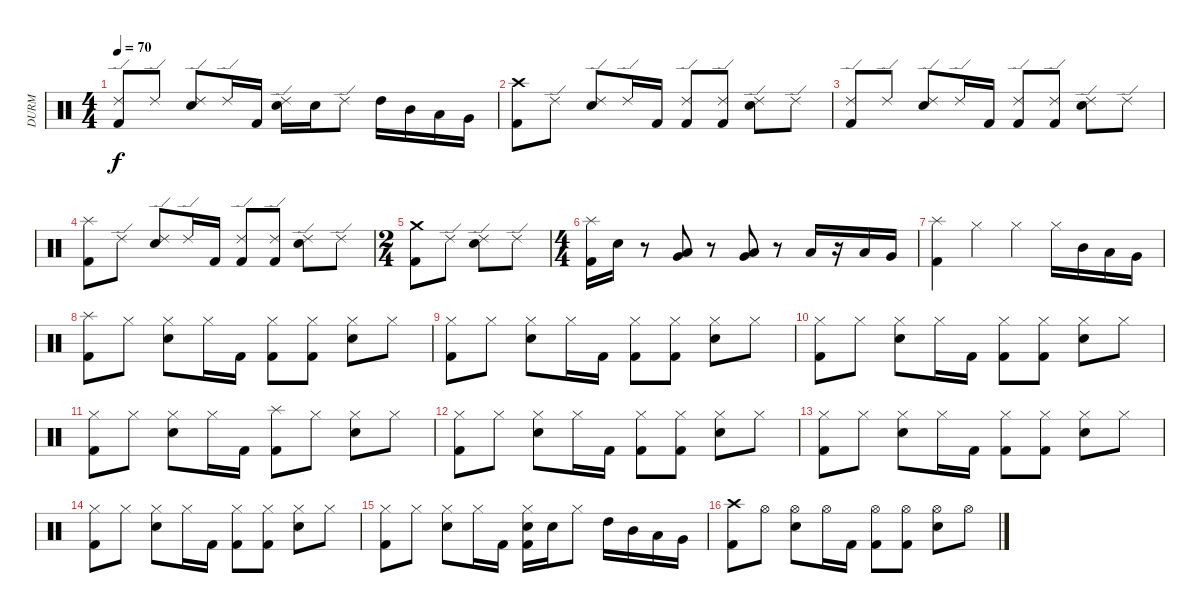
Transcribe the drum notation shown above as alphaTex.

\track ("DURM" "DURM") {instrument percussion}
\staff {score}
\articulation defaults
\ts (4 4)
\tempo 70
\clef neutral
\ks c
("Ride (edge) 2" "Kick (hit) 2").8{dy f} "Ride (edge) 2".8 ("Ride (edge) 2" "Snare (hit) 2").8 "Ride (edge) 2".16 "Kick (hit) 2".16 ("Ride (edge) 2" "Snare (hit) 2").16 "Snare (hit) 2".16 "Ride (edge) 2".8 "High Tom (hit)".16 "Mid Tom (hit)".16 "Low Tom (hit)".16 "Very Low Tom (hit)".16 |
("Crash high (hit)" "Kick (hit) 2").8 "Ride (edge) 2".8 ("Ride (edge) 2" "Snare (hit) 2").8 "Ride (edge) 2".16 "Kick (hit) 2".16 ("Ride (edge) 2" "Kick (hit) 2").8 ("Ride (edge) 2" "Kick (hit) 2").8 ("Ride (edge) 2" "Snare (hit) 2").8 "Ride (edge) 2".8 |
("Ride (edge) 2" "Kick (hit) 2").8 "Ride (edge) 2".8 ("Ride (edge) 2" "Snare (hit) 2").8 "Ride (edge) 2".16 "Kick (hit) 2".16 ("Ride (edge) 2" "Kick (hit) 2").8 ("Ride (edge) 2" "Kick (hit) 2").8 ("Ride (edge) 2" "Snare (hit) 2").8 "Ride (edge) 2".8 |
("Splash (hit)" "Kick (hit) 2").8 "Ride (edge) 2".8 ("Ride (edge) 2" "Snare (hit) 2").8 "Ride (edge) 2".16 "Kick (hit) 2".16 ("Ride (edge) 2" "Kick (hit) 2").8 ("Ride (edge) 2" "Kick (hit) 2").8 ("Ride (edge) 2" "Snare (hit) 2").8 "Ride (edge) 2".8 |
\ts (2 4)
("Crash medium (hit)" "Kick (hit) 2").8 "Ride (edge) 2".8 ("Ride (edge) 2" "Snare (hit) 2").8 "Ride (edge) 2".8 |
\ts (4 4)
("Splash (hit)" "Kick (hit) 2").16 "Snare (hit) 2".16 r.8 ("Very Low Tom (hit)" "Low Tom (hit)").8 r.8 ("Low Floor Tom (hit)" "Very Low Tom (hit)").8 r.8 "Low Floor Tom (hit)".16 r.16 "Low Tom (hit)".16 "Very Low Tom (hit)".16 |
("Splash (hit)" "Kick (hit) 2").4 "Hi-Hat (closed)".4 "Hi-Hat (closed)".4 "Hi-Hat (closed)".16 "Mid Tom (hit)".16 "Low Tom (hit)".16 "Very Low Tom (hit)".16 |
("Splash (hit)" "Kick (hit) 2").8 "Hi-Hat (closed)".8 ("Hi-Hat (closed)" "Snare (hit) 2").8 "Hi-Hat (closed)".16 "Kick (hit) 2".16 ("Hi-Hat (closed)" "Kick (hit) 2").8 ("Hi-Hat (closed)" "Kick (hit) 2").8 ("Hi-Hat (closed)" "Snare (hit) 2").8 "Hi-Hat (closed)".8 |
("Hi-Hat (closed)" "Kick (hit) 2").8 "Hi-Hat (closed)".8 ("Hi-Hat (closed)" "Snare (hit) 2").8 "Hi-Hat (closed)".16 "Kick (hit) 2".16 ("Hi-Hat (closed)" "Kick (hit) 2").8 ("Hi-Hat (closed)" "Kick (hit) 2").8 ("Hi-Hat (closed)" "Snare (hit) 2").8 "Hi-Hat (closed)".8 |
("Hi-Hat (closed)" "Kick (hit) 2").8 "Hi-Hat (closed)".8 ("Hi-Hat (closed)" "Snare (hit) 2").8 "Hi-Hat (closed)".16 "Kick (hit) 2".16 ("Hi-Hat (closed)" "Kick (hit) 2").8 ("Hi-Hat (closed)" "Kick (hit) 2").8 ("Hi-Hat (closed)" "Snare (hit) 2").8 "Hi-Hat (closed)".8 |
("Hi-Hat (closed)" "Kick (hit) 2").8 "Hi-Hat (closed)".8 ("Hi-Hat (closed)" "Snare (hit) 2").8 "Hi-Hat (closed)".16 "Kick (hit) 2".16 ("Splash (hit)" "Kick (hit) 2").8 "Hi-Hat (closed)".8 ("Hi-Hat (closed)" "Snare (hit) 2").8 "Hi-Hat (closed)".8 |
("Hi-Hat (closed)" "Kick (hit) 2").8 "Hi-Hat (closed)".8 ("Hi-Hat (closed)" "Snare (hit) 2").8 "Hi-Hat (closed)".16 "Kick (hit) 2".16 ("Hi-Hat (closed)" "Kick (hit) 2").8 ("Hi-Hat (closed)" "Kick (hit) 2").8 ("Hi-Hat (closed)" "Snare (hit) 2").8 "Hi-Hat (closed)".8 |
("Hi-Hat (closed)" "Kick (hit) 2").8 "Hi-Hat (closed)".8 ("Hi-Hat (closed)" "Snare (hit) 2").8 "Hi-Hat (closed)".16 "Kick (hit) 2".16 ("Hi-Hat (closed)" "Kick (hit) 2").8 ("Hi-Hat (closed)" "Kick (hit) 2").8 ("Hi-Hat (closed)" "Snare (hit) 2").8 "Hi-Hat (closed)".8 |
("Hi-Hat (closed)" "Kick (hit) 2").8 "Hi-Hat (closed)".8 ("Hi-Hat (closed)" "Snare (hit) 2").8 "Hi-Hat (closed)".16 "Kick (hit) 2".16 ("Hi-Hat (closed)" "Kick (hit) 2").8 ("Hi-Hat (closed)" "Kick (hit) 2").8 ("Hi-Hat (closed)" "Snare (hit) 2").8 "Hi-Hat (closed)".8 |
("Hi-Hat (closed)" "Kick (hit) 2").8 "Hi-Hat (closed)".8 ("Hi-Hat (closed)" "Snare (hit) 2").8 "Hi-Hat (closed)".16 "Kick (hit) 2".16 ("Hi-Hat (closed)" "Snare (hit) 2" "Kick (hit) 2").16 "Snare (hit) 2".16 "Hi-Hat (closed)".8 "High Tom (hit)".16 "Mid Tom (hit)".16 "Low Tom (hit)".16 "Very Low Tom (hit)".16 |
("Crash high (hit)" "Kick (hit) 2").8 "Hi-Hat (open)".8 ("Hi-Hat (open)" "Snare (hit) 2").8 "Hi-Hat (open)".16 "Kick (hit) 2".16 ("Hi-Hat (open)" "Kick (hit) 2").8 ("Hi-Hat (open)" "Kick (hit) 2").8 ("Hi-Hat (open)" "Snare (hit) 2").8 "Hi-Hat (open)".8
